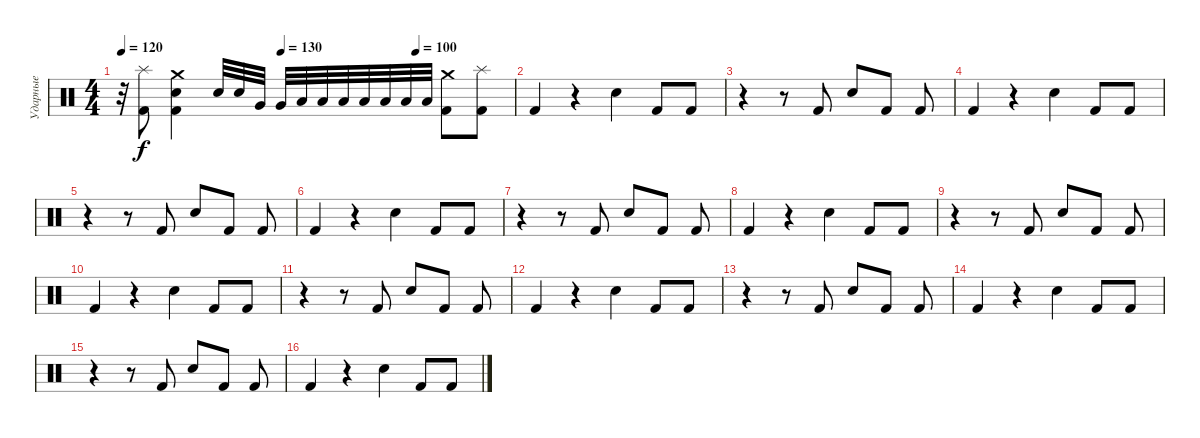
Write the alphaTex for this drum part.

\track ("Ударные" "Ударные") {instrument percussion}
\staff {score}
\articulation defaults
\ts (4 4)
\tempo 120
\tempo (130 0.40625)
\tempo (100 0.75)
\clef neutral
\ks c
r.32{dy f} ("Kick (hit) 2" "Splash (hit)").8 ("Kick (hit) 2" "Electric Snare (hit)" "Crash medium (hit)").4 "Electric Snare (hit)".32 "Electric Snare (hit)".32 "Very Low Tom (hit)".32 "Very Low Tom (hit)".32 "Low Tom (hit)".32 "Low Tom (hit)".32 "Low Tom (hit)".32 "Low Tom (hit)".32 "Low Tom (hit)".32 "Low Tom (hit)".32 "Low Tom (hit)".32 ("Crash medium (hit)" "Kick (hit) 2").8 ("Splash (hit)" "Kick (hit) 2").8 |
"Kick (hit) 2".4 r.4 "Electric Snare (hit)".4 "Kick (hit) 2".8 "Kick (hit) 2".8 |
r.4 r.8 "Kick (hit) 2".8 "Electric Snare (hit)".8 "Kick (hit) 2".8 "Kick (hit) 2".8 |
"Kick (hit) 2".4 r.4 "Electric Snare (hit)".4 "Kick (hit) 2".8 "Kick (hit) 2".8 |
r.4 r.8 "Kick (hit) 2".8 "Electric Snare (hit)".8 "Kick (hit) 2".8 "Kick (hit) 2".8 |
"Kick (hit) 2".4 r.4 "Electric Snare (hit)".4 "Kick (hit) 2".8 "Kick (hit) 2".8 |
r.4 r.8 "Kick (hit) 2".8 "Electric Snare (hit)".8 "Kick (hit) 2".8 "Kick (hit) 2".8 |
"Kick (hit) 2".4 r.4 "Electric Snare (hit)".4 "Kick (hit) 2".8 "Kick (hit) 2".8 |
r.4 r.8 "Kick (hit) 2".8 "Electric Snare (hit)".8 "Kick (hit) 2".8 "Kick (hit) 2".8 |
"Kick (hit) 2".4 r.4 "Electric Snare (hit)".4 "Kick (hit) 2".8 "Kick (hit) 2".8 |
r.4 r.8 "Kick (hit) 2".8 "Electric Snare (hit)".8 "Kick (hit) 2".8 "Kick (hit) 2".8 |
"Kick (hit) 2".4 r.4 "Electric Snare (hit)".4 "Kick (hit) 2".8 "Kick (hit) 2".8 |
r.4 r.8 "Kick (hit) 2".8 "Electric Snare (hit)".8 "Kick (hit) 2".8 "Kick (hit) 2".8 |
"Kick (hit) 2".4 r.4 "Electric Snare (hit)".4 "Kick (hit) 2".8 "Kick (hit) 2".8 |
r.4 r.8 "Kick (hit) 2".8 "Electric Snare (hit)".8 "Kick (hit) 2".8 "Kick (hit) 2".8 |
"Kick (hit) 2".4 r.4 "Electric Snare (hit)".4 "Kick (hit) 2".8 "Kick (hit) 2".8
